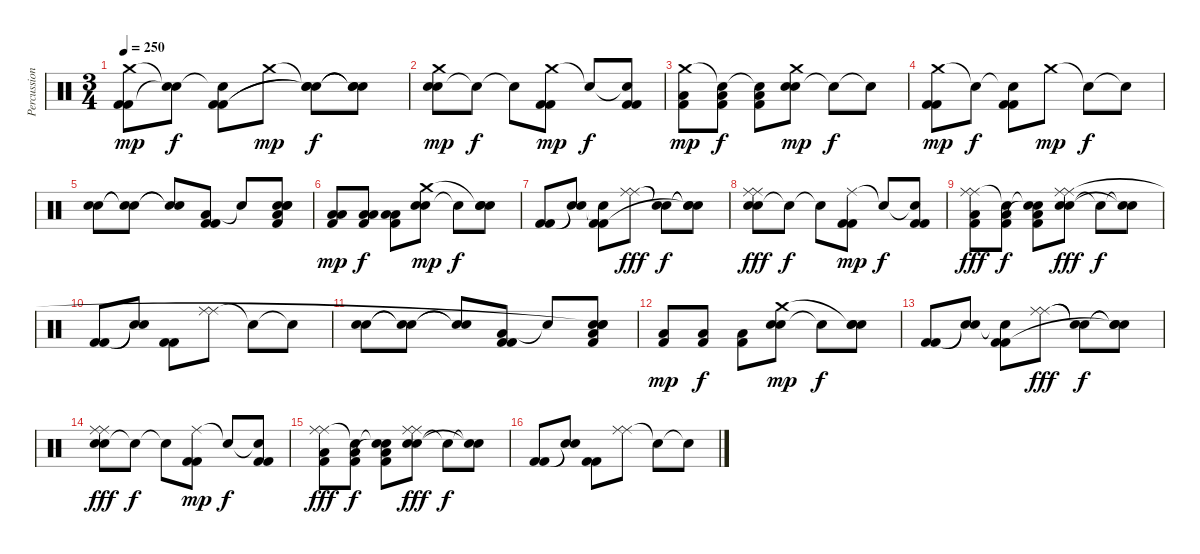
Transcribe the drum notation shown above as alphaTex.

\track ("Percussion" "Percussion") {instrument percussion}
\staff {score}
\articulation defaults
\ts (3 4)
\tempo 250
\clef neutral
\ks c
("Crash medium (hit)" "Kick (hit) 2" "Kick (hit) 2").8{dy mp} ("Snare (hit)"{t} "Snare (hit)"{t}).8{dy f} ("Snare (hit)"{t} "Kick (hit) 2" "Kick (hit) 2").8 "Crash medium (hit)".8{dy mp} ("Snare (hit)"{t} "Snare (hit)"{t} "Snare (hit)"{t}).8{dy f} ("Snare (hit)"{t} "Snare (hit)"{t} "Snare (hit)"{t}).8 |
("Snare (hit) 2" "Snare (hit) 2" "Crash medium (hit)").8{dy mp} "Snare (hit)"{t}.8{dy f} "Snare (hit)"{t}.8 ("Crash medium (hit)" "Kick (hit) 2" "Kick (hit) 2").8{dy mp} "Snare (hit)"{t}.8{dy f} ("Snare (hit)"{t} "Kick (hit) 2" "Kick (hit) 2").8 |
("Low Tom (hit)" "Crash medium (hit)" "Kick (hit) 2").8{dy mp} ("Low Tom (hit)" "Snare (hit)"{t} "Kick (hit) 2").8{dy f} ("Low Tom (hit)" "Snare (hit)"{t} "Kick (hit) 2").8 ("Snare (hit) 2" "Snare (hit) 2" "Crash medium (hit)").8{dy mp} "Snare (hit)"{t}.8{dy f} "Snare (hit)"{t}.8 |
("Crash medium (hit)" "Kick (hit) 2" "Kick (hit) 2").8{dy mp} "Snare (hit)"{t}.8{dy f} ("Snare (hit)"{t} "Kick (hit) 2" "Kick (hit) 2").8 "Crash medium (hit)".8{dy mp} "Snare (hit)"{t}.8{dy f} "Snare (hit)"{t}.8 |
("Snare (hit) 2" "Snare (hit) 2").8 ("Snare (hit)"{t} "Snare (hit)"{t}).8 ("Snare (hit)"{t} "Snare (hit) 2"{t}).8 ("Low Tom (hit)" "Kick (hit) 2" "Kick (hit) 2").8 "Snare (hit)"{t}.8 ("Snare (hit) 2" "Snare (hit) 2" "Low Tom (hit)" "Snare (hit)" "Kick (hit) 2").8 |
("Low Floor Tom (hit)" "Low Tom (hit)" "Kick (hit) 2").8{dy mp} ("Low Floor Tom (hit)" "Low Tom (hit)" "Kick (hit) 2").8{dy f} ("Low Floor Tom (hit)" "Low Tom (hit)" "Kick (hit) 2").8 ("Snare (hit) 2" "Snare (hit) 2" "Crash medium (hit)").8{dy mp} "Snare (hit)"{t}.8{dy f} ("Snare (hit) 2" "Snare (hit) 2" "Snare (hit)"{t}).8 |
("Kick (hit) 2" "Kick (hit) 2").8 ("Snare (hit)"{t} "Snare (hit)"{t}).8 ("Snare (hit)"{t} "Kick (hit) 2" "Kick (hit) 2").8 ("Ride (middle)" "Ride (middle)").8{dy fff} ("Snare (hit)"{t} "Snare (hit)"{t}).8{dy f} ("Snare (hit)"{t} "Snare (hit)"{t} "Snare (hit)"{t}).8 |
("Snare (hit) 2" "Snare (hit) 2" "Ride (middle)" "Ride (middle)").8{dy fff} "Snare (hit)"{t}.8{dy f} "Snare (hit)"{t}.8 ("Ride (middle)" "Kick (hit) 2" "Kick (hit) 2").8{dy mp} "Snare (hit)"{t}.8{dy f} ("Snare (hit)"{t} "Kick (hit) 2" "Kick (hit) 2").8 |
("Low Tom (hit)" "Ride (middle)" "Ride (middle)" "Kick (hit) 2").8{dy fff} ("Low Tom (hit)" "Snare (hit)"{t} "Kick (hit) 2").8{dy f} ("Low Tom (hit)" "Snare (hit)"{t} "Snare (hit)"{t} "Kick (hit) 2").8 ("Snare (hit) 2" "Snare (hit) 2" "Ride (middle)" "Ride (middle)").8{dy fff} "Snare (hit)"{t}.8{dy f} ("Snare (hit)"{t} "Snare (hit)"{t}).8 |
("Kick (hit) 2" "Kick (hit) 2").8 ("Snare (hit)"{t} "Snare (hit)"{t}).8 ("Kick (hit) 2" "Kick (hit) 2").8 ("Ride (middle)" "Ride (middle)").8 "Snare (hit)"{t}.8 "Snare (hit)"{t}.8 |
("Snare (hit) 2" "Snare (hit) 2").8 ("Snare (hit)"{t} "Snare (hit)"{t}).8 ("Snare (hit)"{t} "Snare (hit) 2"{t}).8 ("Low Tom (hit)" "Kick (hit) 2" "Kick (hit) 2").8 "Snare (hit)"{t}.8 ("Snare (hit) 2" "Snare (hit) 2" "Low Tom (hit)" "Snare (hit)"{t} "Kick (hit) 2").8 |
("Low Tom (hit)" "Kick (hit) 2").8{dy mp} ("Low Tom (hit)" "Kick (hit) 2").8{dy f} ("Low Tom (hit)" "Kick (hit) 2").8 ("Snare (hit) 2" "Snare (hit) 2" "Crash medium (hit)").8{dy mp} "Snare (hit)"{t}.8{dy f} ("Snare (hit) 2" "Snare (hit) 2" "Snare (hit)"{t}).8 |
("Kick (hit) 2" "Kick (hit) 2").8 ("Snare (hit)"{t} "Snare (hit)"{t}).8 ("Snare (hit)"{t} "Kick (hit) 2" "Kick (hit) 2").8 ("Ride (middle)" "Ride (middle)").8{dy fff} ("Snare (hit)"{t} "Snare (hit)"{t}).8{dy f} ("Snare (hit)"{t} "Snare (hit)"{t} "Snare (hit)"{t}).8 |
("Snare (hit) 2" "Snare (hit) 2" "Ride (middle)" "Ride (middle)").8{dy fff} "Snare (hit)"{t}.8{dy f} "Snare (hit)"{t}.8 ("Ride (middle)" "Kick (hit) 2" "Kick (hit) 2").8{dy mp} "Snare (hit)"{t}.8{dy f} ("Snare (hit)"{t} "Kick (hit) 2" "Kick (hit) 2").8 |
("Low Tom (hit)" "Ride (middle)" "Ride (middle)" "Kick (hit) 2").8{dy fff} ("Low Tom (hit)" "Snare (hit)"{t} "Kick (hit) 2").8{dy f} ("Low Tom (hit)" "Snare (hit)"{t} "Snare (hit)"{t} "Kick (hit) 2").8 ("Snare (hit) 2" "Snare (hit) 2" "Ride (middle)" "Ride (middle)").8{dy fff} "Snare (hit)"{t}.8{dy f} ("Snare (hit)"{t} "Snare (hit)"{t}).8 |
("Kick (hit) 2" "Kick (hit) 2").8 ("Snare (hit)"{t} "Snare (hit)"{t}).8 ("Kick (hit) 2" "Kick (hit) 2").8 ("Ride (middle)" "Ride (middle)").8 "Snare (hit)"{t}.8 "Snare (hit)"{t}.8
